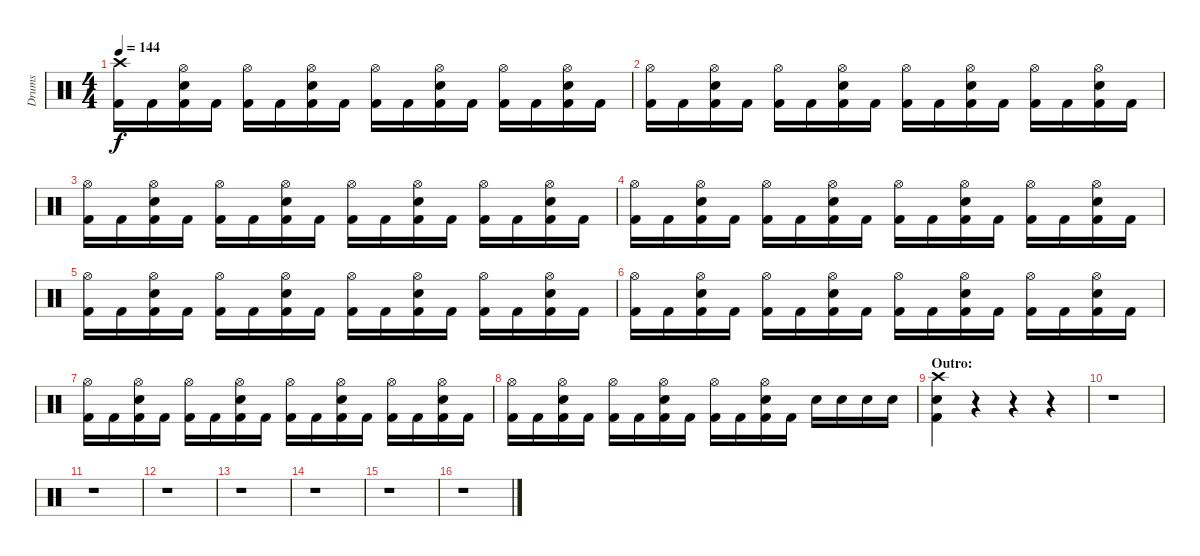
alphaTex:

\track ("Drums" "Drums") {instrument percussion}
\staff {score}
\articulation defaults
\ts (4 4)
\tempo 144
\clef neutral
\ks c
("Crash high (hit)" "Kick (hit) 2").16{dy f} "Kick (hit) 2".16 ("Hi-Hat (open)" "Snare (hit) 2" "Kick (hit) 2").16 "Kick (hit) 2".16 ("Hi-Hat (open)" "Kick (hit) 2").16 "Kick (hit) 2".16 ("Hi-Hat (open)" "Snare (hit) 2" "Kick (hit) 2").16 "Kick (hit) 2".16 ("Hi-Hat (open)" "Kick (hit) 2").16 "Kick (hit) 2".16 ("Hi-Hat (open)" "Snare (hit) 2" "Kick (hit) 2").16 "Kick (hit) 2".16 ("Hi-Hat (open)" "Kick (hit) 2").16 "Kick (hit) 2".16 ("Hi-Hat (open)" "Snare (hit) 2" "Kick (hit) 2").16 "Kick (hit) 2".16 |
("Hi-Hat (open)" "Kick (hit) 2").16 "Kick (hit) 2".16 ("Hi-Hat (open)" "Snare (hit) 2" "Kick (hit) 2").16 "Kick (hit) 2".16 ("Hi-Hat (open)" "Kick (hit) 2").16 "Kick (hit) 2".16 ("Hi-Hat (open)" "Snare (hit) 2" "Kick (hit) 2").16 "Kick (hit) 2".16 ("Hi-Hat (open)" "Kick (hit) 2").16 "Kick (hit) 2".16 ("Hi-Hat (open)" "Snare (hit) 2" "Kick (hit) 2").16 "Kick (hit) 2".16 ("Hi-Hat (open)" "Kick (hit) 2").16 "Kick (hit) 2".16 ("Hi-Hat (open)" "Snare (hit) 2" "Kick (hit) 2").16 "Kick (hit) 2".16 |
("Hi-Hat (open)" "Kick (hit) 2").16 "Kick (hit) 2".16 ("Hi-Hat (open)" "Snare (hit) 2" "Kick (hit) 2").16 "Kick (hit) 2".16 ("Hi-Hat (open)" "Kick (hit) 2").16 "Kick (hit) 2".16 ("Hi-Hat (open)" "Snare (hit) 2" "Kick (hit) 2").16 "Kick (hit) 2".16 ("Hi-Hat (open)" "Kick (hit) 2").16 "Kick (hit) 2".16 ("Hi-Hat (open)" "Snare (hit) 2" "Kick (hit) 2").16 "Kick (hit) 2".16 ("Hi-Hat (open)" "Kick (hit) 2").16 "Kick (hit) 2".16 ("Hi-Hat (open)" "Snare (hit) 2" "Kick (hit) 2").16 "Kick (hit) 2".16 |
("Hi-Hat (open)" "Kick (hit) 2").16 "Kick (hit) 2".16 ("Hi-Hat (open)" "Snare (hit) 2" "Kick (hit) 2").16 "Kick (hit) 2".16 ("Hi-Hat (open)" "Kick (hit) 2").16 "Kick (hit) 2".16 ("Hi-Hat (open)" "Snare (hit) 2" "Kick (hit) 2").16 "Kick (hit) 2".16 ("Hi-Hat (open)" "Kick (hit) 2").16 "Kick (hit) 2".16 ("Hi-Hat (open)" "Snare (hit) 2" "Kick (hit) 2").16 "Kick (hit) 2".16 ("Hi-Hat (open)" "Kick (hit) 2").16 "Kick (hit) 2".16 ("Hi-Hat (open)" "Snare (hit) 2" "Kick (hit) 2").16 "Kick (hit) 2".16 |
("Hi-Hat (open)" "Kick (hit) 2").16 "Kick (hit) 2".16 ("Hi-Hat (open)" "Snare (hit) 2" "Kick (hit) 2").16 "Kick (hit) 2".16 ("Hi-Hat (open)" "Kick (hit) 2").16 "Kick (hit) 2".16 ("Hi-Hat (open)" "Snare (hit) 2" "Kick (hit) 2").16 "Kick (hit) 2".16 ("Hi-Hat (open)" "Kick (hit) 2").16 "Kick (hit) 2".16 ("Hi-Hat (open)" "Snare (hit) 2" "Kick (hit) 2").16 "Kick (hit) 2".16 ("Hi-Hat (open)" "Kick (hit) 2").16 "Kick (hit) 2".16 ("Hi-Hat (open)" "Snare (hit) 2" "Kick (hit) 2").16 "Kick (hit) 2".16 |
("Hi-Hat (open)" "Kick (hit) 2").16 "Kick (hit) 2".16 ("Hi-Hat (open)" "Snare (hit) 2" "Kick (hit) 2").16 "Kick (hit) 2".16 ("Hi-Hat (open)" "Kick (hit) 2").16 "Kick (hit) 2".16 ("Hi-Hat (open)" "Snare (hit) 2" "Kick (hit) 2").16 "Kick (hit) 2".16 ("Hi-Hat (open)" "Kick (hit) 2").16 "Kick (hit) 2".16 ("Hi-Hat (open)" "Snare (hit) 2" "Kick (hit) 2").16 "Kick (hit) 2".16 ("Hi-Hat (open)" "Kick (hit) 2").16 "Kick (hit) 2".16 ("Hi-Hat (open)" "Snare (hit) 2" "Kick (hit) 2").16 "Kick (hit) 2".16 |
("Hi-Hat (open)" "Kick (hit) 2").16 "Kick (hit) 2".16 ("Hi-Hat (open)" "Snare (hit) 2" "Kick (hit) 2").16 "Kick (hit) 2".16 ("Hi-Hat (open)" "Kick (hit) 2").16 "Kick (hit) 2".16 ("Hi-Hat (open)" "Snare (hit) 2" "Kick (hit) 2").16 "Kick (hit) 2".16 ("Hi-Hat (open)" "Kick (hit) 2").16 "Kick (hit) 2".16 ("Hi-Hat (open)" "Snare (hit) 2" "Kick (hit) 2").16 "Kick (hit) 2".16 ("Hi-Hat (open)" "Kick (hit) 2").16 "Kick (hit) 2".16 ("Hi-Hat (open)" "Snare (hit) 2" "Kick (hit) 2").16 "Kick (hit) 2".16 |
("Hi-Hat (open)" "Kick (hit) 2").16 "Kick (hit) 2".16 ("Hi-Hat (open)" "Snare (hit) 2" "Kick (hit) 2").16 "Kick (hit) 2".16 ("Hi-Hat (open)" "Kick (hit) 2").16 "Kick (hit) 2".16 ("Hi-Hat (open)" "Snare (hit) 2" "Kick (hit) 2").16 "Kick (hit) 2".16 ("Hi-Hat (open)" "Kick (hit) 2").16 "Kick (hit) 2".16 ("Hi-Hat (open)" "Snare (hit) 2" "Kick (hit) 2").16 "Kick (hit) 2".16 "Snare (hit) 2".16 "Snare (hit) 2".16 "Snare (hit) 2".16 "Snare (hit) 2".16 |
\section ("" "Outro:")
("Crash high (hit)" "Snare (hit) 2" "Kick (hit) 2").4 r.4 r.4 r.4 |
r.1 |
r.1 |
r.1 |
r.1 |
r.1 |
r.1 |
r.1
